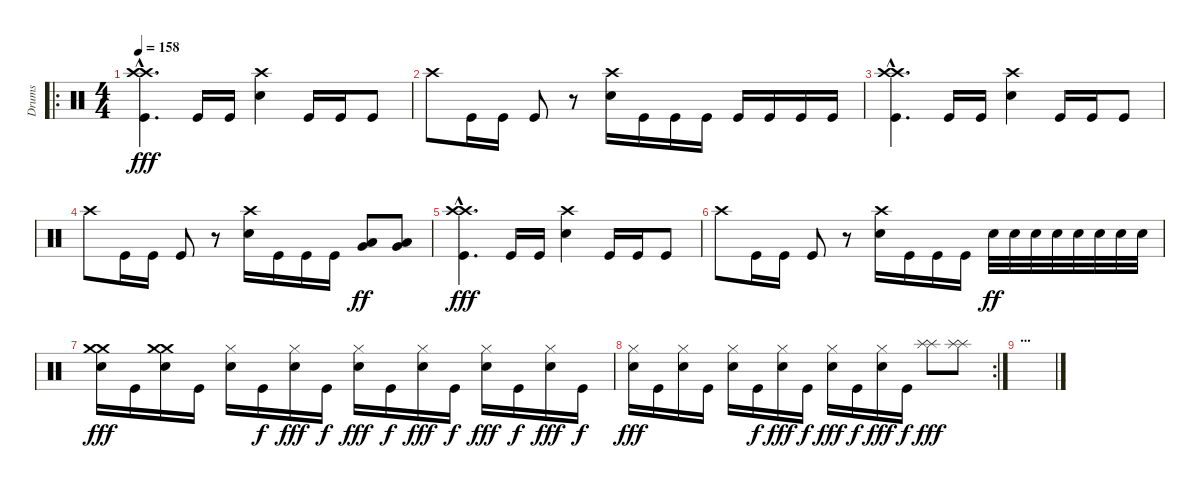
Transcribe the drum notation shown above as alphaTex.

\track ("Drums" "Drums") {instrument percussion}
\staff {score}
\articulation defaults
\ro
\ts (4 4)
\tempo 158
\clef neutral
\ks c
("Crash high (hit)"{hac} "Crash high (hit)"{hac} "Kick (hit)"{hac}).4{d dy fff} "Kick (hit)".16 "Kick (hit)".16 ("Electric Snare (hit)" "Crash high (hit)").4 "Kick (hit)".16 "Kick (hit)".16 "Kick (hit)".8 |
"Crash high (hit)".8 "Kick (hit)".16 "Kick (hit)".16 "Kick (hit)".8 r.8 ("Electric Snare (hit)" "Crash high (hit)").16 "Kick (hit)".16 "Kick (hit)".16 "Kick (hit)".16 "Kick (hit)".16 "Kick (hit)".16 "Kick (hit)".16 "Kick (hit)".16 |
("Crash high (hit)"{hac} "Crash high (hit)"{hac} "Kick (hit)"{hac}).4{d} "Kick (hit)".16 "Kick (hit)".16 ("Electric Snare (hit)" "Crash high (hit)").4 "Kick (hit)".16 "Kick (hit)".16 "Kick (hit)".8 |
"Crash high (hit)".8 "Kick (hit)".16 "Kick (hit)".16 "Kick (hit)".8 r.8 ("Electric Snare (hit)" "Crash high (hit)").16 "Kick (hit)".16 "Kick (hit)".16 "Kick (hit)".16 ("Low Tom (hit)" "Very Low Tom (hit)").8{dy ff} ("Low Tom (hit)" "Very Low Tom (hit)").8 |
("Crash high (hit)"{hac} "Crash high (hit)"{hac} "Kick (hit)"{hac}).4{d dy fff} "Kick (hit)".16 "Kick (hit)".16 ("Electric Snare (hit)" "Crash high (hit)").4 "Kick (hit)".16 "Kick (hit)".16 "Kick (hit)".8 |
"Crash high (hit)".8 "Kick (hit)".16 "Kick (hit)".16 "Kick (hit)".8 r.8 ("Electric Snare (hit)" "Crash high (hit)").16 "Kick (hit)".16 "Kick (hit)".16 "Kick (hit)".16 "Electric Snare (hit)".32{dy ff} "Electric Snare (hit)".32 "Electric Snare (hit)".32 "Electric Snare (hit)".32 "Electric Snare (hit)".32 "Electric Snare (hit)".32 "Electric Snare (hit)".32 "Electric Snare (hit)".32 |
("Electric Snare (hit)" "Crash medium (hit)" "Crash medium (hit)").16{dy fff} "Kick (hit)".16 ("Electric Snare (hit)" "Crash medium (hit)" "Crash medium (hit)").16 "Kick (hit)".16 ("Electric Snare (hit)" "Hi-Hat (closed)").16 "Kick (hit)".16{dy f} ("Electric Snare (hit)" "Hi-Hat (closed)").16{dy fff} "Kick (hit)".16{dy f} ("Electric Snare (hit)" "Hi-Hat (closed)").16{dy fff} "Kick (hit)".16{dy f} ("Electric Snare (hit)" "Hi-Hat (closed)").16{dy fff} "Kick (hit)".16{dy f} ("Electric Snare (hit)" "Hi-Hat (closed)").16{dy fff} "Kick (hit)".16{dy f} ("Electric Snare (hit)" "Hi-Hat (closed)").16{dy fff} "Kick (hit)".16{dy f} |
\rc 2
("Electric Snare (hit)" "Hi-Hat (closed)").16{dy fff} "Kick (hit)".16 ("Electric Snare (hit)" "Hi-Hat (closed)").16 "Kick (hit)".16 ("Electric Snare (hit)" "Hi-Hat (closed)").16 "Kick (hit)".16{dy f} ("Electric Snare (hit)" "Hi-Hat (closed)").16{dy fff} "Kick (hit)".16{dy f} ("Electric Snare (hit)" "Hi-Hat (closed)").16{dy fff} "Kick (hit)".16{dy f} ("Electric Snare (hit)" "Hi-Hat (closed)").16{dy fff} "Kick (hit)".16{dy f} ("Splash (hit)" "Splash (hit)").8{dy fff} ("Splash (hit)" "Splash (hit)").8 |
\section ("" "...")
